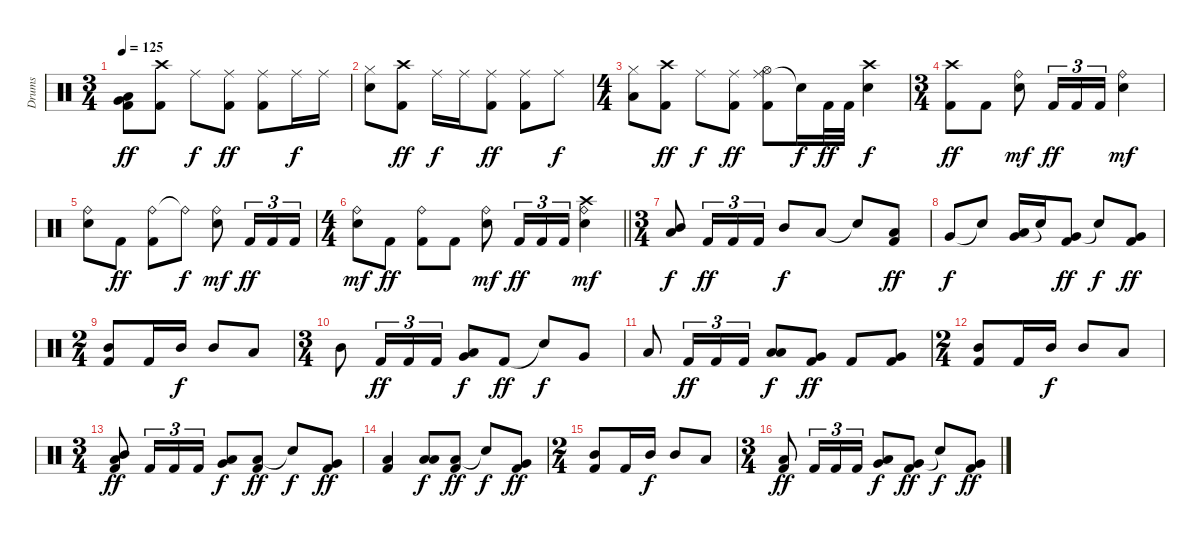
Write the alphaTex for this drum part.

\track ("Drums" "Drums") {instrument percussion}
\staff {score}
\articulation defaults
\ts (3 4)
\tempo 125
\clef neutral
\ks c
("Very Low Tom (hit)" "Low Floor Tom (hit)" "Kick (hit) 2").8{dy ff} ("Crash high (hit)" "Kick (hit) 2").8 "Ride (middle)".8{dy f} ("Ride (middle)" "Kick (hit) 2").8{dy ff} ("Ride (middle)" "Kick (hit) 2").8 "Ride (middle)".16{dy f} "Ride (middle)".16 |
("Hi-Hat (closed)" "Snare (hit) 2").8 ("Crash high (hit)" "Kick (hit) 2").8{dy ff} "Ride (middle)".16{dy f} "Ride (middle)".16 ("Ride (middle)" "Kick (hit) 2").8{dy ff} ("Ride (middle)" "Kick (hit) 2").8 "Ride (middle)".8{dy f} |
\ts (4 4)
("Hi-Hat (closed)" "Low Floor Tom (hit)").8 ("Crash high (hit)" "Kick (hit) 2").8{dy ff} "Ride (middle)".8{dy f} ("Ride (middle)" "Kick (hit) 2").8{dy ff} ("Ride (middle)" "Hi-Hat (open)" "Kick (hit) 2").8 "Snare (hit)"{t}.16{dy f} "Kick (hit) 2".32{dy ff} "Kick (hit) 2".32 ("Crash high (hit)" "Snare (hit) 2").4{dy f} |
\ts (3 4)
("Crash high (hit)" "Kick (hit) 2").8{dy ff} "Kick (hit) 2".8 ("Ride (bell)" "Snare (hit) 2").8{dy mf} "Kick (hit) 2".16{tu (3 2) dy ff} "Kick (hit) 2".16{tu (3 2)} "Kick (hit) 2".16{tu (3 2)} ("Ride (bell)" "Snare (hit) 2").4{dy mf} |
("Ride (bell)" "Snare (hit) 2").8 "Kick (hit) 2".8{dy ff} ("Ride (bell)" "Kick (hit) 2").8 "Ride (bell)"{t}.8{dy f} ("Ride (bell)" "Snare (hit) 2").8{dy mf} "Kick (hit) 2".16{tu (3 2) dy ff} "Kick (hit) 2".16{tu (3 2)} "Kick (hit) 2".16{tu (3 2)} |
\ts (4 4)
\barLineRight lightlight
("Ride (bell)" "Snare (hit) 2").8{dy mf} "Kick (hit) 2".8{dy ff} ("Ride (bell)" "Kick (hit) 2").8 "Kick (hit) 2".8 ("Ride (bell)" "Snare (hit) 2").8{dy mf} "Kick (hit) 2".16{tu (3 2) dy ff} "Kick (hit) 2".16{tu (3 2)} "Kick (hit) 2".16{tu (3 2)} ("Crash high (hit)" "Ride (bell)" "Snare (hit) 2").4{dy mf} |
\ts (3 4)
\section ("" "")
("Low Tom (hit)" "Mid Tom (hit)").8{dy f} "Kick (hit) 2".16{tu (3 2) dy ff} "Kick (hit) 2".16{tu (3 2)} "Kick (hit) 2".16{tu (3 2)} "Mid Tom (hit)".8{dy f} "Low Tom (hit)".8 "Snare (hit)"{t}.8 ("Low Floor Tom (hit)" "Kick (hit) 2").8{dy ff} |
"Very Low Tom (hit)".8{dy f} "Snare (hit)"{t}.8 ("Very Low Tom (hit)" "Low Floor Tom (hit)").16 "Snare (hit)"{t}.16 ("Very Low Tom (hit)" "Kick (hit) 2").8{dy ff} "Snare (hit)"{t}.8{dy f} ("Very Low Tom (hit)" "Kick (hit) 2").8{dy ff} |
\ts (2 4)
("Mid Tom (hit)" "Kick (hit) 2").8 "Kick (hit) 2".16 "Mid Tom (hit)".16{dy f} "Mid Tom (hit)".8 "Low Tom (hit)".8 |
\ts (3 4)
"Mid Tom (hit)".8 "Kick (hit) 2".16{tu (3 2) dy ff} "Kick (hit) 2".16{tu (3 2)} "Kick (hit) 2".16{tu (3 2)} ("Very Low Tom (hit)" "Low Floor Tom (hit)").8{dy f} "Kick (hit) 2".8{dy ff} "Snare (hit)"{t}.8{dy f} "Very Low Tom (hit)".8 |
"Low Floor Tom (hit)".8 "Kick (hit) 2".16{tu (3 2) dy ff} "Kick (hit) 2".16{tu (3 2)} "Kick (hit) 2".16{tu (3 2)} ("Low Tom (hit)" "Low Floor Tom (hit)").8{dy f} ("Very Low Tom (hit)" "Kick (hit) 2").8{dy ff} "Kick (hit) 2".8 ("Very Low Tom (hit)" "Kick (hit) 2").8 |
\ts (2 4)
("Mid Tom (hit)" "Kick (hit) 2").8 "Kick (hit) 2".16 "Mid Tom (hit)".16{dy f} "Mid Tom (hit)".8 "Low Tom (hit)".8 |
\ts (3 4)
("Mid Tom (hit)" "Low Tom (hit)" "Kick (hit) 2").8{dy ff} "Kick (hit) 2".16{tu (3 2)} "Kick (hit) 2".16{tu (3 2)} "Kick (hit) 2".16{tu (3 2)} ("Very Low Tom (hit)" "Low Tom (hit)").8{dy f} ("Low Tom (hit)" "Kick (hit) 2").8{dy ff} "Snare (hit)"{t}.8{dy f} ("Very Low Tom (hit)" "Kick (hit) 2").8{dy ff} |
("Low Tom (hit)" "Kick (hit) 2").4 ("Low Floor Tom (hit)" "Low Tom (hit)").8{dy f} ("Low Tom (hit)" "Kick (hit) 2").8{dy ff} "Snare (hit)"{t}.8{dy f} ("Very Low Tom (hit)" "Kick (hit) 2").8{dy ff} |
\ts (2 4)
("Mid Tom (hit)" "Kick (hit) 2").8 "Kick (hit) 2".16 "Mid Tom (hit)".16{dy f} "Mid Tom (hit)".8 "Low Tom (hit)".8 |
\ts (3 4)
("Low Floor Tom (hit)" "Kick (hit) 2").8{dy ff} "Kick (hit) 2".16{tu (3 2)} "Kick (hit) 2".16{tu (3 2)} "Kick (hit) 2".16{tu (3 2)} ("Low Floor Tom (hit)" "Very Low Tom (hit)").8{dy f} ("Very Low Tom (hit)" "Kick (hit) 2").8{dy ff} "Snare (hit)"{t}.8{dy f} ("Very Low Tom (hit)" "Kick (hit) 2").8{dy ff}
